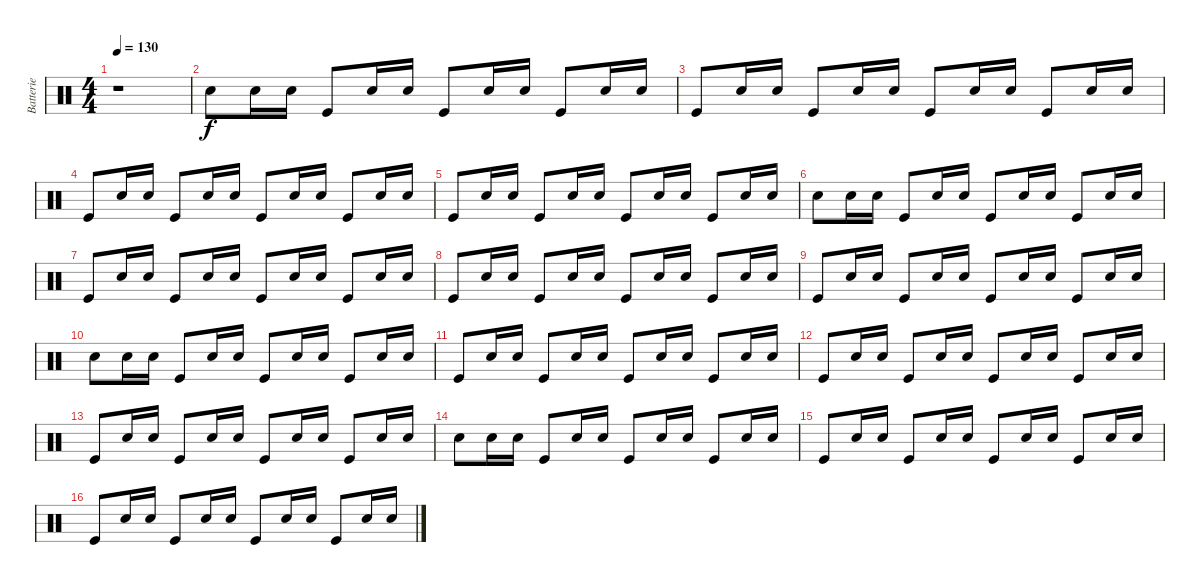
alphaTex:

\track ("Batterie" "Batterie") {instrument percussion}
\staff {score}
\articulation defaults
\ts (4 4)
\tempo 130
\clef neutral
\ks c
r.1{dy f} |
"Snare (hit) 2".8 "Snare (hit) 2".16 "Snare (hit) 2".16 "Kick (hit)".8 "Snare (hit) 2".16 "Snare (hit) 2".16 "Kick (hit)".8 "Snare (hit) 2".16 "Snare (hit) 2".16 "Kick (hit)".8 "Snare (hit) 2".16 "Snare (hit) 2".16 |
"Kick (hit)".8 "Snare (hit) 2".16 "Snare (hit) 2".16 "Kick (hit)".8 "Snare (hit) 2".16 "Snare (hit) 2".16 "Kick (hit)".8 "Snare (hit) 2".16 "Snare (hit) 2".16 "Kick (hit)".8 "Snare (hit) 2".16 "Snare (hit) 2".16 |
"Kick (hit)".8 "Snare (hit) 2".16 "Snare (hit) 2".16 "Kick (hit)".8 "Snare (hit) 2".16 "Snare (hit) 2".16 "Kick (hit)".8 "Snare (hit) 2".16 "Snare (hit) 2".16 "Kick (hit)".8 "Snare (hit) 2".16 "Snare (hit) 2".16 |
"Kick (hit)".8 "Snare (hit) 2".16 "Snare (hit) 2".16 "Kick (hit)".8 "Snare (hit) 2".16 "Snare (hit) 2".16 "Kick (hit)".8 "Snare (hit) 2".16 "Snare (hit) 2".16 "Kick (hit)".8 "Snare (hit) 2".16 "Snare (hit) 2".16 |
"Snare (hit) 2".8 "Snare (hit) 2".16 "Snare (hit) 2".16 "Kick (hit)".8 "Snare (hit) 2".16 "Snare (hit) 2".16 "Kick (hit)".8 "Snare (hit) 2".16 "Snare (hit) 2".16 "Kick (hit)".8 "Snare (hit) 2".16 "Snare (hit) 2".16 |
"Kick (hit)".8 "Snare (hit) 2".16 "Snare (hit) 2".16 "Kick (hit)".8 "Snare (hit) 2".16 "Snare (hit) 2".16 "Kick (hit)".8 "Snare (hit) 2".16 "Snare (hit) 2".16 "Kick (hit)".8 "Snare (hit) 2".16 "Snare (hit) 2".16 |
"Kick (hit)".8 "Snare (hit) 2".16 "Snare (hit) 2".16 "Kick (hit)".8 "Snare (hit) 2".16 "Snare (hit) 2".16 "Kick (hit)".8 "Snare (hit) 2".16 "Snare (hit) 2".16 "Kick (hit)".8 "Snare (hit) 2".16 "Snare (hit) 2".16 |
"Kick (hit)".8 "Snare (hit) 2".16 "Snare (hit) 2".16 "Kick (hit)".8 "Snare (hit) 2".16 "Snare (hit) 2".16 "Kick (hit)".8 "Snare (hit) 2".16 "Snare (hit) 2".16 "Kick (hit)".8 "Snare (hit) 2".16 "Snare (hit) 2".16 |
"Snare (hit) 2".8 "Snare (hit) 2".16 "Snare (hit) 2".16 "Kick (hit)".8 "Snare (hit) 2".16 "Snare (hit) 2".16 "Kick (hit)".8 "Snare (hit) 2".16 "Snare (hit) 2".16 "Kick (hit)".8 "Snare (hit) 2".16 "Snare (hit) 2".16 |
"Kick (hit)".8 "Snare (hit) 2".16 "Snare (hit) 2".16 "Kick (hit)".8 "Snare (hit) 2".16 "Snare (hit) 2".16 "Kick (hit)".8 "Snare (hit) 2".16 "Snare (hit) 2".16 "Kick (hit)".8 "Snare (hit) 2".16 "Snare (hit) 2".16 |
"Kick (hit)".8 "Snare (hit) 2".16 "Snare (hit) 2".16 "Kick (hit)".8 "Snare (hit) 2".16 "Snare (hit) 2".16 "Kick (hit)".8 "Snare (hit) 2".16 "Snare (hit) 2".16 "Kick (hit)".8 "Snare (hit) 2".16 "Snare (hit) 2".16 |
"Kick (hit)".8 "Snare (hit) 2".16 "Snare (hit) 2".16 "Kick (hit)".8 "Snare (hit) 2".16 "Snare (hit) 2".16 "Kick (hit)".8 "Snare (hit) 2".16 "Snare (hit) 2".16 "Kick (hit)".8 "Snare (hit) 2".16 "Snare (hit) 2".16 |
"Snare (hit) 2".8 "Snare (hit) 2".16 "Snare (hit) 2".16 "Kick (hit)".8 "Snare (hit) 2".16 "Snare (hit) 2".16 "Kick (hit)".8 "Snare (hit) 2".16 "Snare (hit) 2".16 "Kick (hit)".8 "Snare (hit) 2".16 "Snare (hit) 2".16 |
"Kick (hit)".8 "Snare (hit) 2".16 "Snare (hit) 2".16 "Kick (hit)".8 "Snare (hit) 2".16 "Snare (hit) 2".16 "Kick (hit)".8 "Snare (hit) 2".16 "Snare (hit) 2".16 "Kick (hit)".8 "Snare (hit) 2".16 "Snare (hit) 2".16 |
"Kick (hit)".8 "Snare (hit) 2".16 "Snare (hit) 2".16 "Kick (hit)".8 "Snare (hit) 2".16 "Snare (hit) 2".16 "Kick (hit)".8 "Snare (hit) 2".16 "Snare (hit) 2".16 "Kick (hit)".8 "Snare (hit) 2".16 "Snare (hit) 2".16
